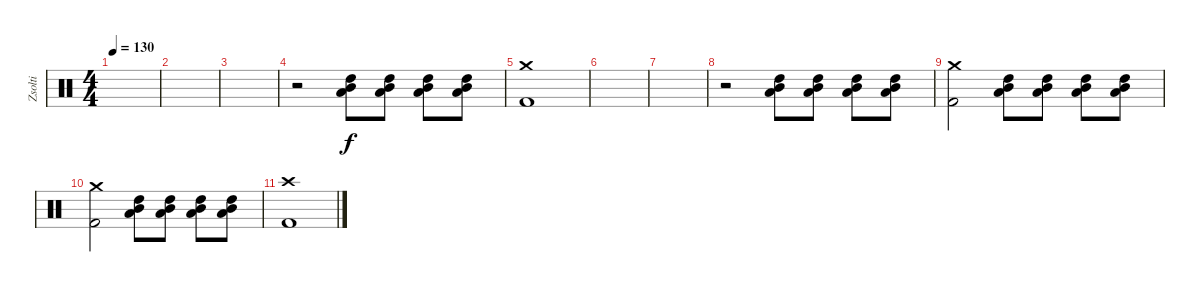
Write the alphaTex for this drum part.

\track ("Zsolti" "Zsolti") {instrument percussion}
\staff {score}
\articulation defaults
\ts (4 4)
\tempo 130
\clef neutral
\ks c
|
|
|
r.2 ("High Tom (hit)" "Low Tom (hit)" "Mid Tom (hit)").8 ("High Tom (hit)" "Low Tom (hit)" "Mid Tom (hit)").8 ("High Tom (hit)" "Low Tom (hit)" "Mid Tom (hit)").8 ("High Tom (hit)" "Low Tom (hit)" "Mid Tom (hit)").8 |
("Crash medium (hit)" "Kick (hit) 2").1 |
|
|
r.2 ("High Tom (hit)" "Low Tom (hit)" "Mid Tom (hit)").8 ("High Tom (hit)" "Low Tom (hit)" "Mid Tom (hit)").8 ("High Tom (hit)" "Low Tom (hit)" "Mid Tom (hit)").8 ("High Tom (hit)" "Low Tom (hit)" "Mid Tom (hit)").8 |
("Crash medium (hit)" "Kick (hit) 2").2 ("High Tom (hit)" "Low Tom (hit)" "Mid Tom (hit)").8 ("High Tom (hit)" "Low Tom (hit)" "Mid Tom (hit)").8 ("High Tom (hit)" "Low Tom (hit)" "Mid Tom (hit)").8 ("High Tom (hit)" "Low Tom (hit)" "Mid Tom (hit)").8 |
("Crash medium (hit)" "Kick (hit) 2").2 ("High Tom (hit)" "Low Tom (hit)" "Mid Tom (hit)").8 ("High Tom (hit)" "Low Tom (hit)" "Mid Tom (hit)").8 ("High Tom (hit)" "Low Tom (hit)" "Mid Tom (hit)").8 ("High Tom (hit)" "Low Tom (hit)" "Mid Tom (hit)").8 |
("Crash high (hit)" "Kick (hit) 2").1
